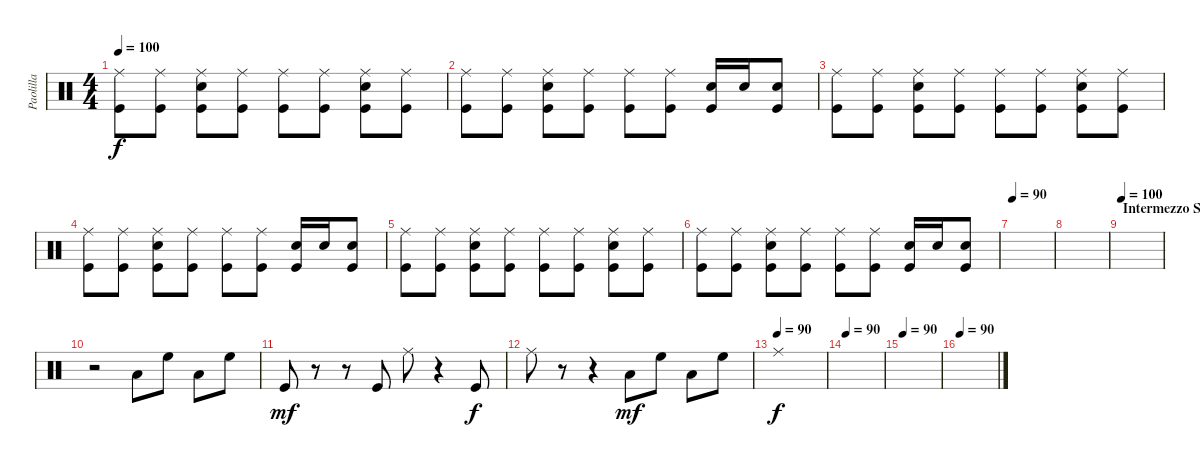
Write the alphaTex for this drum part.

\track ("Paolilla" "Paolilla") {instrument percussion}
\staff {score}
\articulation defaults
\ts (4 4)
\tempo 100
\clef neutral
\ks c
("Ride (middle)" "Kick (hit)").8{dy f} ("Ride (middle)" "Kick (hit)").8 ("Snare (hit) 2" "Ride (middle)" "Kick (hit)").8 ("Ride (middle)" "Kick (hit)").8 ("Ride (middle)" "Kick (hit)").8 ("Ride (middle)" "Kick (hit)").8 ("Snare (hit) 2" "Ride (middle)" "Kick (hit)").8 ("Ride (middle)" "Kick (hit)").8 |
("Ride (middle)" "Kick (hit)").8 ("Ride (middle)" "Kick (hit)").8 ("Snare (hit) 2" "Ride (middle)" "Kick (hit)").8 ("Ride (middle)" "Kick (hit)").8 ("Ride (middle)" "Kick (hit)").8 ("Ride (middle)" "Kick (hit)").8 ("Snare (hit) 2" "Kick (hit)").16 "Snare (hit) 2".16 ("Snare (hit) 2" "Kick (hit)").8 |
("Ride (middle)" "Kick (hit)").8 ("Ride (middle)" "Kick (hit)").8 ("Snare (hit) 2" "Ride (middle)" "Kick (hit)").8 ("Ride (middle)" "Kick (hit)").8 ("Ride (middle)" "Kick (hit)").8 ("Ride (middle)" "Kick (hit)").8 ("Snare (hit) 2" "Ride (middle)" "Kick (hit)").8 ("Ride (middle)" "Kick (hit)").8 |
("Ride (middle)" "Kick (hit)").8 ("Ride (middle)" "Kick (hit)").8 ("Snare (hit) 2" "Ride (middle)" "Kick (hit)").8 ("Ride (middle)" "Kick (hit)").8 ("Ride (middle)" "Kick (hit)").8 ("Ride (middle)" "Kick (hit)").8 ("Snare (hit) 2" "Kick (hit)").16 "Snare (hit) 2".16 ("Snare (hit) 2" "Kick (hit)").8 |
("Ride (middle)" "Kick (hit)").8 ("Ride (middle)" "Kick (hit)").8 ("Snare (hit) 2" "Ride (middle)" "Kick (hit)").8 ("Ride (middle)" "Kick (hit)").8 ("Ride (middle)" "Kick (hit)").8 ("Ride (middle)" "Kick (hit)").8 ("Snare (hit) 2" "Ride (middle)" "Kick (hit)").8 ("Ride (middle)" "Kick (hit)").8 |
("Ride (middle)" "Kick (hit)").8 ("Ride (middle)" "Kick (hit)").8 ("Snare (hit) 2" "Ride (middle)" "Kick (hit)").8 ("Ride (middle)" "Kick (hit)").8 ("Ride (middle)" "Kick (hit)").8 ("Ride (middle)" "Kick (hit)").8 ("Snare (hit) 2" "Kick (hit)").16 "Snare (hit) 2".16 ("Snare (hit) 2" "Kick (hit)").8 |
\tempo 90
|
|
\section ("" "Intermezzo Strum")
\tempo 100
|
r.2 "Low Tom (hit)".8 "High Floor Tom (hit)".8 "Low Tom (hit)".8 "High Floor Tom (hit)".8 |
"Kick (hit)".8{dy mf} r.8 r.8 "Kick (hit)".8 "Ride (middle)".8 r.4 "Kick (hit)".8{dy f} |
"Ride (middle)".8 r.8 r.4 "Low Tom (hit)".8{dy mf} "High Floor Tom (hit)".8 "Low Tom (hit)".8 "High Floor Tom (hit)".8 |
\tempo (90)
"Ride (middle)".1{dy f} |
\tempo 90
|
\tempo 90
|
\tempo 90
